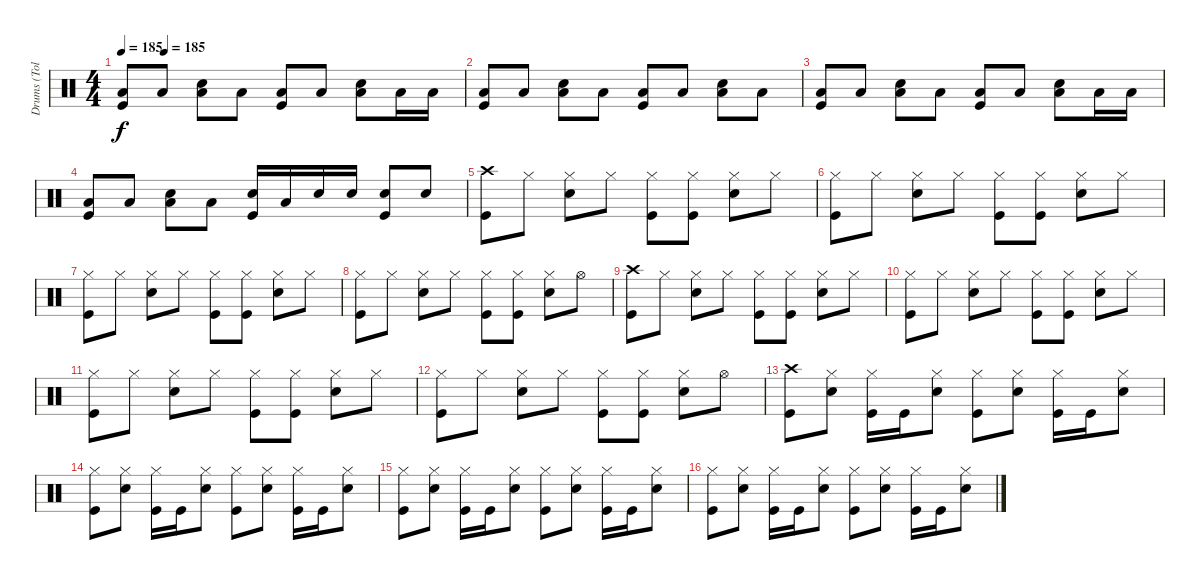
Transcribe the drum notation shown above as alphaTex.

\track ("Drums (Tolik)" "Drums (Tol") {instrument percussion}
\staff {score}
\articulation defaults
\ts (4 4)
\tempo 185
\tempo (185 0.125)
\clef neutral
\ks c
("Low Floor Tom (hit)" "Kick (hit)").8{dy f} "Low Floor Tom (hit)".8 ("Low Floor Tom (hit)" "Electric Snare (hit)").8 "Low Floor Tom (hit)".8 ("Low Floor Tom (hit)" "Kick (hit)").8 "Low Floor Tom (hit)".8 ("Low Floor Tom (hit)" "Electric Snare (hit)").8 "Low Floor Tom (hit)".16 "Low Floor Tom (hit)".16 |
("Low Floor Tom (hit)" "Kick (hit)").8 "Low Floor Tom (hit)".8 ("Low Floor Tom (hit)" "Electric Snare (hit)").8 "Low Floor Tom (hit)".8 ("Low Floor Tom (hit)" "Kick (hit)").8 "Low Floor Tom (hit)".8 ("Low Floor Tom (hit)" "Electric Snare (hit)").8 "Low Floor Tom (hit)".8 |
("Low Floor Tom (hit)" "Kick (hit)").8 "Low Floor Tom (hit)".8 ("Low Floor Tom (hit)" "Electric Snare (hit)").8 "Low Floor Tom (hit)".8 ("Low Floor Tom (hit)" "Kick (hit)").8 "Low Floor Tom (hit)".8 ("Low Floor Tom (hit)" "Electric Snare (hit)").8 "Low Floor Tom (hit)".16 "Low Floor Tom (hit)".16 |
("Low Floor Tom (hit)" "Kick (hit)").8 "Low Floor Tom (hit)".8 ("Low Floor Tom (hit)" "Electric Snare (hit)").8 "Low Floor Tom (hit)".8 ("Electric Snare (hit)" "Kick (hit)").16 "Low Floor Tom (hit)".16 "Electric Snare (hit)".16 "Electric Snare (hit)".16 ("Electric Snare (hit)" "Kick (hit)").8 "Electric Snare (hit)".8 |
("Crash high (hit)" "Kick (hit)").8 "Hi-Hat (closed)".8 ("Hi-Hat (closed)" "Electric Snare (hit)").8 "Hi-Hat (closed)".8 ("Hi-Hat (closed)" "Kick (hit)").8 ("Hi-Hat (closed)" "Kick (hit)").8 ("Hi-Hat (closed)" "Electric Snare (hit)").8 "Hi-Hat (closed)".8 |
("Hi-Hat (closed)" "Kick (hit)").8 "Hi-Hat (closed)".8 ("Hi-Hat (closed)" "Electric Snare (hit)").8 "Hi-Hat (closed)".8 ("Hi-Hat (closed)" "Kick (hit)").8 ("Hi-Hat (closed)" "Kick (hit)").8 ("Hi-Hat (closed)" "Electric Snare (hit)").8 "Hi-Hat (closed)".8 |
("Hi-Hat (closed)" "Kick (hit)").8 "Hi-Hat (closed)".8 ("Hi-Hat (closed)" "Electric Snare (hit)").8 "Hi-Hat (closed)".8 ("Hi-Hat (closed)" "Kick (hit)").8 ("Hi-Hat (closed)" "Kick (hit)").8 ("Hi-Hat (closed)" "Electric Snare (hit)").8 "Hi-Hat (closed)".8 |
("Hi-Hat (closed)" "Kick (hit)").8 "Hi-Hat (closed)".8 ("Hi-Hat (closed)" "Electric Snare (hit)").8 "Hi-Hat (closed)".8 ("Hi-Hat (closed)" "Kick (hit)").8 ("Hi-Hat (closed)" "Kick (hit)").8 ("Hi-Hat (closed)" "Electric Snare (hit)").8 "Hi-Hat (open)".8 |
("Crash high (hit)" "Kick (hit)").8 "Hi-Hat (closed)".8 ("Hi-Hat (closed)" "Electric Snare (hit)").8 "Hi-Hat (closed)".8 ("Hi-Hat (closed)" "Kick (hit)").8 ("Hi-Hat (closed)" "Kick (hit)").8 ("Hi-Hat (closed)" "Electric Snare (hit)").8 "Hi-Hat (closed)".8 |
("Hi-Hat (closed)" "Kick (hit)").8 "Hi-Hat (closed)".8 ("Hi-Hat (closed)" "Electric Snare (hit)").8 "Hi-Hat (closed)".8 ("Hi-Hat (closed)" "Kick (hit)").8 ("Hi-Hat (closed)" "Kick (hit)").8 ("Hi-Hat (closed)" "Electric Snare (hit)").8 "Hi-Hat (closed)".8 |
("Hi-Hat (closed)" "Kick (hit)").8 "Hi-Hat (closed)".8 ("Hi-Hat (closed)" "Electric Snare (hit)").8 "Hi-Hat (closed)".8 ("Hi-Hat (closed)" "Kick (hit)").8 ("Hi-Hat (closed)" "Kick (hit)").8 ("Hi-Hat (closed)" "Electric Snare (hit)").8 "Hi-Hat (closed)".8 |
("Hi-Hat (closed)" "Kick (hit)").8 "Hi-Hat (closed)".8 ("Hi-Hat (closed)" "Electric Snare (hit)").8 "Hi-Hat (closed)".8 ("Hi-Hat (closed)" "Kick (hit)").8 ("Hi-Hat (closed)" "Kick (hit)").8 ("Hi-Hat (closed)" "Electric Snare (hit)").8 "Hi-Hat (open)".8 |
("Crash high (hit)" "Kick (hit)").8 ("Hi-Hat (closed)" "Electric Snare (hit)").8 ("Hi-Hat (closed)" "Kick (hit)").16 "Kick (hit)".16 ("Hi-Hat (closed)" "Electric Snare (hit)").8 ("Hi-Hat (closed)" "Kick (hit)").8 ("Hi-Hat (closed)" "Electric Snare (hit)").8 ("Hi-Hat (closed)" "Kick (hit)").16 "Kick (hit)".16 ("Hi-Hat (closed)" "Electric Snare (hit)").8 |
("Hi-Hat (closed)" "Kick (hit)").8 ("Hi-Hat (closed)" "Electric Snare (hit)").8 ("Hi-Hat (closed)" "Kick (hit)").16 "Kick (hit)".16 ("Hi-Hat (closed)" "Electric Snare (hit)").8 ("Hi-Hat (closed)" "Kick (hit)").8 ("Hi-Hat (closed)" "Electric Snare (hit)").8 ("Hi-Hat (closed)" "Kick (hit)").16 "Kick (hit)".16 ("Hi-Hat (closed)" "Electric Snare (hit)").8 |
("Hi-Hat (closed)" "Kick (hit)").8 ("Hi-Hat (closed)" "Electric Snare (hit)").8 ("Hi-Hat (closed)" "Kick (hit)").16 "Kick (hit)".16 ("Hi-Hat (closed)" "Electric Snare (hit)").8 ("Hi-Hat (closed)" "Kick (hit)").8 ("Hi-Hat (closed)" "Electric Snare (hit)").8 ("Hi-Hat (closed)" "Kick (hit)").16 "Kick (hit)".16 ("Hi-Hat (closed)" "Electric Snare (hit)").8 |
("Hi-Hat (closed)" "Kick (hit)").8 ("Hi-Hat (closed)" "Electric Snare (hit)").8 ("Hi-Hat (closed)" "Kick (hit)").16 "Kick (hit)".16 ("Hi-Hat (closed)" "Electric Snare (hit)").8 ("Hi-Hat (closed)" "Kick (hit)").8 ("Hi-Hat (closed)" "Electric Snare (hit)").8 ("Hi-Hat (closed)" "Kick (hit)").16 "Kick (hit)".16 ("Hi-Hat (closed)" "Electric Snare (hit)").8
